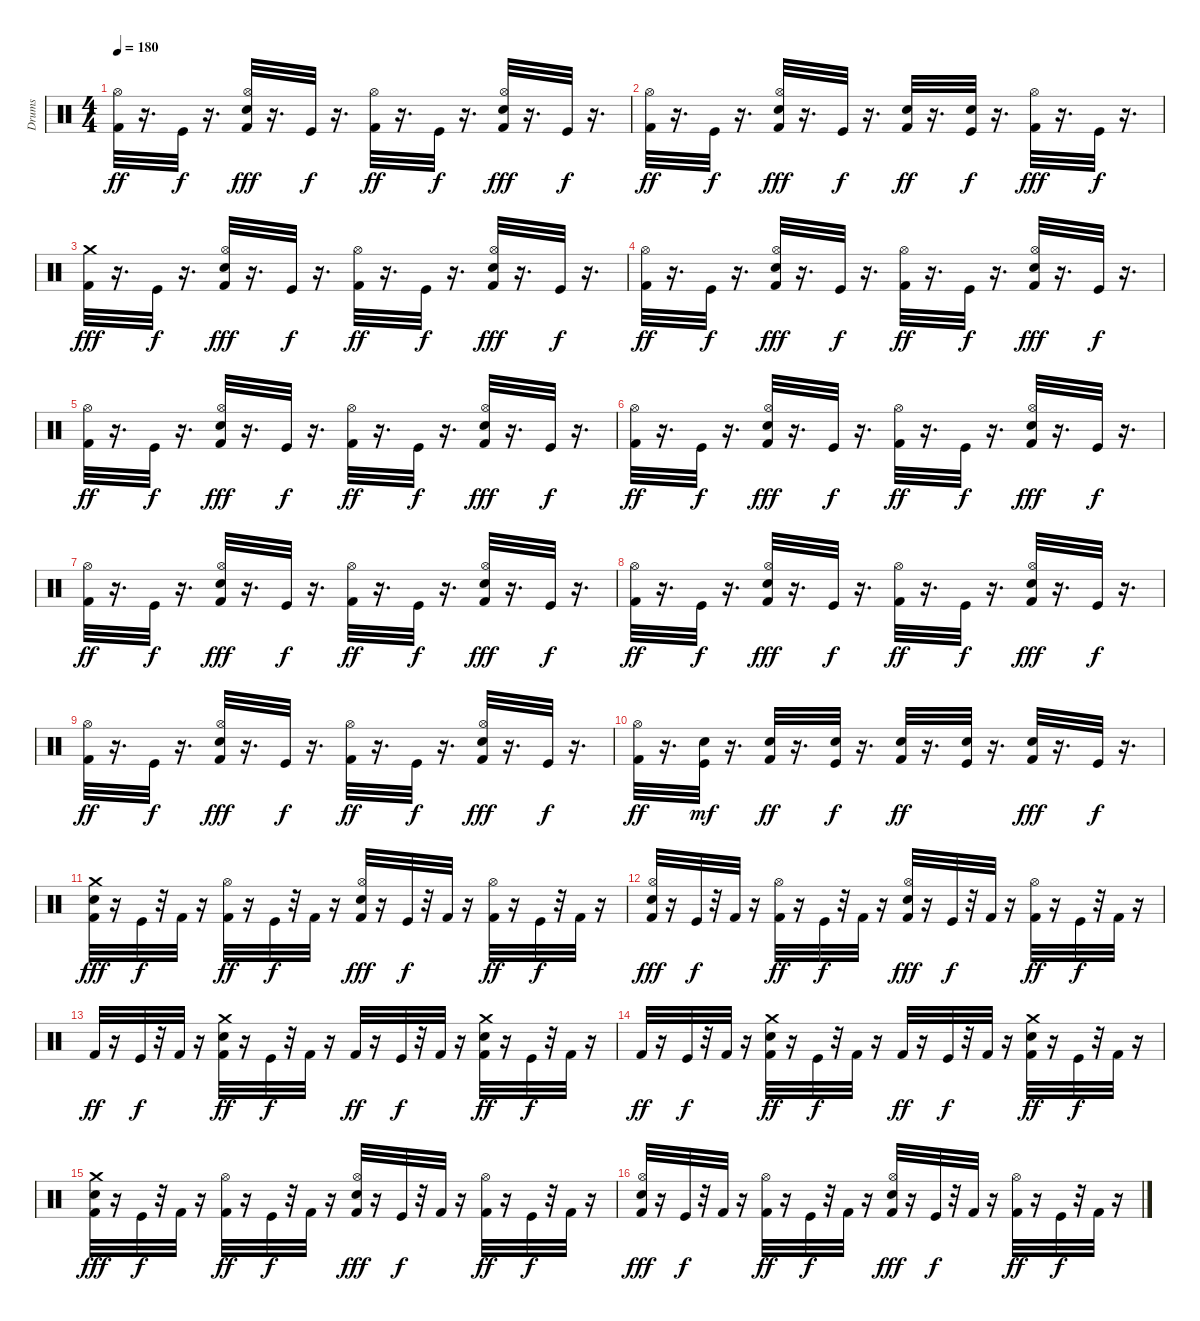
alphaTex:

\track ("Drums" "Drums") {instrument percussion}
\staff {score}
\articulation defaults
\ts (4 4)
\tempo 180
\clef neutral
\ks c
("Kick (hit) 2" "Hi-Hat (open)").32{dy ff} r.16{d} "Kick (hit)".32{dy f} r.16{d} ("Kick (hit) 2" "Snare (hit) 2" "Hi-Hat (open)").32{dy fff} r.16{d} "Kick (hit)".32{dy f} r.16{d} ("Kick (hit) 2" "Hi-Hat (open)").32{dy ff} r.16{d} "Kick (hit)".32{dy f} r.16{d} ("Kick (hit) 2" "Snare (hit) 2" "Hi-Hat (open)").32{dy fff} r.16{d} "Kick (hit)".32{dy f} r.16{d} |
("Kick (hit) 2" "Hi-Hat (open)").32{dy ff} r.16{d} "Kick (hit)".32{dy f} r.16{d} ("Kick (hit) 2" "Snare (hit) 2" "Hi-Hat (open)").32{dy fff} r.16{d} "Kick (hit)".32{dy f} r.16{d} ("Snare (hit) 2" "Kick (hit) 2").32{dy ff} r.16{d} ("Snare (hit) 2" "Kick (hit)").32{dy f} r.16{d} ("Kick (hit) 2" "Hi-Hat (open)").32{dy fff} r.16{d} "Kick (hit)".32{dy f} r.16{d} |
("Kick (hit) 2" "Crash medium (hit)").32{dy fff} r.16{d} "Kick (hit)".32{dy f} r.16{d} ("Kick (hit) 2" "Snare (hit) 2" "Hi-Hat (open)").32{dy fff} r.16{d} "Kick (hit)".32{dy f} r.16{d} ("Kick (hit) 2" "Hi-Hat (open)").32{dy ff} r.16{d} "Kick (hit)".32{dy f} r.16{d} ("Kick (hit) 2" "Snare (hit) 2" "Hi-Hat (open)").32{dy fff} r.16{d} "Kick (hit)".32{dy f} r.16{d} |
("Kick (hit) 2" "Hi-Hat (open)").32{dy ff} r.16{d} "Kick (hit)".32{dy f} r.16{d} ("Kick (hit) 2" "Snare (hit) 2" "Hi-Hat (open)").32{dy fff} r.16{d} "Kick (hit)".32{dy f} r.16{d} ("Kick (hit) 2" "Hi-Hat (open)").32{dy ff} r.16{d} "Kick (hit)".32{dy f} r.16{d} ("Kick (hit) 2" "Snare (hit) 2" "Hi-Hat (open)").32{dy fff} r.16{d} "Kick (hit)".32{dy f} r.16{d} |
("Kick (hit) 2" "Hi-Hat (open)").32{dy ff} r.16{d} "Kick (hit)".32{dy f} r.16{d} ("Kick (hit) 2" "Snare (hit) 2" "Hi-Hat (open)").32{dy fff} r.16{d} "Kick (hit)".32{dy f} r.16{d} ("Kick (hit) 2" "Hi-Hat (open)").32{dy ff} r.16{d} "Kick (hit)".32{dy f} r.16{d} ("Kick (hit) 2" "Snare (hit) 2" "Hi-Hat (open)").32{dy fff} r.16{d} "Kick (hit)".32{dy f} r.16{d} |
("Kick (hit) 2" "Hi-Hat (open)").32{dy ff} r.16{d} "Kick (hit)".32{dy f} r.16{d} ("Kick (hit) 2" "Snare (hit) 2" "Hi-Hat (open)").32{dy fff} r.16{d} "Kick (hit)".32{dy f} r.16{d} ("Kick (hit) 2" "Hi-Hat (open)").32{dy ff} r.16{d} "Kick (hit)".32{dy f} r.16{d} ("Kick (hit) 2" "Snare (hit) 2" "Hi-Hat (open)").32{dy fff} r.16{d} "Kick (hit)".32{dy f} r.16{d} |
("Kick (hit) 2" "Hi-Hat (open)").32{dy ff} r.16{d} "Kick (hit)".32{dy f} r.16{d} ("Kick (hit) 2" "Snare (hit) 2" "Hi-Hat (open)").32{dy fff} r.16{d} "Kick (hit)".32{dy f} r.16{d} ("Kick (hit) 2" "Hi-Hat (open)").32{dy ff} r.16{d} "Kick (hit)".32{dy f} r.16{d} ("Kick (hit) 2" "Snare (hit) 2" "Hi-Hat (open)").32{dy fff} r.16{d} "Kick (hit)".32{dy f} r.16{d} |
("Kick (hit) 2" "Hi-Hat (open)").32{dy ff} r.16{d} "Kick (hit)".32{dy f} r.16{d} ("Kick (hit) 2" "Snare (hit) 2" "Hi-Hat (open)").32{dy fff} r.16{d} "Kick (hit)".32{dy f} r.16{d} ("Kick (hit) 2" "Hi-Hat (open)").32{dy ff} r.16{d} "Kick (hit)".32{dy f} r.16{d} ("Kick (hit) 2" "Snare (hit) 2" "Hi-Hat (open)").32{dy fff} r.16{d} "Kick (hit)".32{dy f} r.16{d} |
("Kick (hit) 2" "Hi-Hat (open)").32{dy ff} r.16{d} "Kick (hit)".32{dy f} r.16{d} ("Kick (hit) 2" "Snare (hit) 2" "Hi-Hat (open)").32{dy fff} r.16{d} "Kick (hit)".32{dy f} r.16{d} ("Kick (hit) 2" "Hi-Hat (open)").32{dy ff} r.16{d} "Kick (hit)".32{dy f} r.16{d} ("Kick (hit) 2" "Snare (hit) 2" "Hi-Hat (open)").32{dy fff} r.16{d} "Kick (hit)".32{dy f} r.16{d} |
("Kick (hit) 2" "Hi-Hat (open)").32{dy ff} r.16{d} ("Kick (hit)" "Snare (hit) 2").32{dy mf} r.16{d} ("Kick (hit) 2" "Snare (hit) 2").32{dy ff} r.16{d} ("Kick (hit)" "Snare (hit) 2").32{dy f} r.16{d} ("Kick (hit) 2" "Snare (hit) 2").32{dy ff} r.16{d} ("Kick (hit)" "Snare (hit) 2").32 r.16{d} ("Kick (hit) 2" "Snare (hit) 2").32{dy fff} r.16{d} "Kick (hit)".32{dy f} r.16{d} |
("Kick (hit) 2" "Snare (hit) 2" "Crash medium (hit)").32{dy fff} r.16 "Kick (hit)".32{dy f} r.32 "Kick (hit) 2".32 r.16 ("Kick (hit) 2" "Hi-Hat (open)").32{dy ff} r.16 "Kick (hit)".32{dy f} r.32 "Kick (hit) 2".32 r.16 ("Kick (hit) 2" "Snare (hit) 2" "Hi-Hat (open)").32{dy fff} r.16 "Kick (hit)".32{dy f} r.32 "Kick (hit) 2".32 r.16 ("Kick (hit) 2" "Hi-Hat (open)").32{dy ff} r.16 "Kick (hit)".32{dy f} r.32 "Kick (hit) 2".32 r.16 |
("Kick (hit) 2" "Snare (hit) 2" "Hi-Hat (open)").32{dy fff} r.16 "Kick (hit)".32{dy f} r.32 "Kick (hit) 2".32 r.16 ("Kick (hit) 2" "Hi-Hat (open)").32{dy ff} r.16 "Kick (hit)".32{dy f} r.32 "Kick (hit) 2".32 r.16 ("Kick (hit) 2" "Snare (hit) 2" "Hi-Hat (open)").32{dy fff} r.16 "Kick (hit)".32{dy f} r.32 "Kick (hit) 2".32 r.16 ("Kick (hit) 2" "Hi-Hat (open)").32{dy ff} r.16 "Kick (hit)".32{dy f} r.32 "Kick (hit) 2".32 r.16 |
"Kick (hit) 2".32{dy ff} r.16 "Kick (hit)".32{dy f} r.32 "Kick (hit) 2".32 r.16 ("Crash medium (hit)" "Snare (hit) 2" "Kick (hit) 2").32{dy ff} r.16 "Kick (hit)".32{dy f} r.32 "Kick (hit) 2".32 r.16 "Kick (hit) 2".32{dy ff} r.16 "Kick (hit)".32{dy f} r.32 "Kick (hit) 2".32 r.16 ("Crash medium (hit)" "Snare (hit) 2" "Kick (hit) 2").32{dy ff} r.16 "Kick (hit)".32{dy f} r.32 "Kick (hit) 2".32 r.16 |
"Kick (hit) 2".32{dy ff} r.16 "Kick (hit)".32{dy f} r.32 "Kick (hit) 2".32 r.16 ("Crash medium (hit)" "Snare (hit) 2" "Kick (hit) 2").32{dy ff} r.16 "Kick (hit)".32{dy f} r.32 "Kick (hit) 2".32 r.16 "Kick (hit) 2".32{dy ff} r.16 "Kick (hit)".32{dy f} r.32 "Kick (hit) 2".32 r.16 ("Crash medium (hit)" "Snare (hit) 2" "Kick (hit) 2").32{dy ff} r.16 "Kick (hit)".32{dy f} r.32 "Kick (hit) 2".32 r.16 |
("Kick (hit) 2" "Snare (hit) 2" "Crash medium (hit)").32{dy fff} r.16 "Kick (hit)".32{dy f} r.32 "Kick (hit) 2".32 r.16 ("Kick (hit) 2" "Hi-Hat (open)").32{dy ff} r.16 "Kick (hit)".32{dy f} r.32 "Kick (hit) 2".32 r.16 ("Kick (hit) 2" "Snare (hit) 2" "Hi-Hat (open)").32{dy fff} r.16 "Kick (hit)".32{dy f} r.32 "Kick (hit) 2".32 r.16 ("Kick (hit) 2" "Hi-Hat (open)").32{dy ff} r.16 "Kick (hit)".32{dy f} r.32 "Kick (hit) 2".32 r.16 |
("Kick (hit) 2" "Snare (hit) 2" "Hi-Hat (open)").32{dy fff} r.16 "Kick (hit)".32{dy f} r.32 "Kick (hit) 2".32 r.16 ("Kick (hit) 2" "Hi-Hat (open)").32{dy ff} r.16 "Kick (hit)".32{dy f} r.32 "Kick (hit) 2".32 r.16 ("Kick (hit) 2" "Snare (hit) 2" "Hi-Hat (open)").32{dy fff} r.16 "Kick (hit)".32{dy f} r.32 "Kick (hit) 2".32 r.16 ("Kick (hit) 2" "Hi-Hat (open)").32{dy ff} r.16 "Kick (hit)".32{dy f} r.32 "Kick (hit) 2".32 r.16
